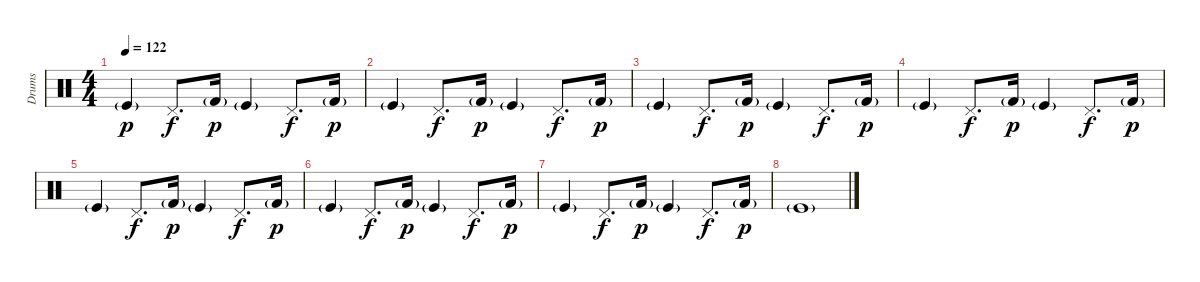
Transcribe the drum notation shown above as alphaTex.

\track ("Drums" "Drums") {instrument percussion}
\staff {score}
\articulation defaults
\ts (4 4)
\tempo 122
\clef neutral
\ks c "Kick (hit)"{g}.4{dy p} "Pedal Hi-Hat (hit)".8{d dy f} "Kick (hit) 2"{g}.16{dy p} "Kick (hit)"{g}.4 "Pedal Hi-Hat (hit)".8{d dy f} "Kick (hit) 2"{g}.16{dy p}
|
"Kick (hit)"{g}.4 "Pedal Hi-Hat (hit)".8{d dy f} "Kick (hit) 2"{g}.16{dy p} "Kick (hit)"{g}.4 "Pedal Hi-Hat (hit)".8{d dy f} "Kick (hit) 2"{g}.16{dy p} |
"Kick (hit)"{g}.4 "Pedal Hi-Hat (hit)".8{d dy f} "Kick (hit) 2"{g}.16{dy p} "Kick (hit)"{g}.4 "Pedal Hi-Hat (hit)".8{d dy f} "Kick (hit) 2"{g}.16{dy p} |
"Kick (hit)"{g}.4 "Pedal Hi-Hat (hit)".8{d dy f} "Kick (hit) 2"{g}.16{dy p} "Kick (hit)"{g}.4 "Pedal Hi-Hat (hit)".8{d dy f} "Kick (hit) 2"{g}.16{dy p} |
"Kick (hit)"{g}.4 "Pedal Hi-Hat (hit)".8{d dy f} "Kick (hit) 2"{g}.16{dy p} "Kick (hit)"{g}.4 "Pedal Hi-Hat (hit)".8{d dy f} "Kick (hit) 2"{g}.16{dy p} |
"Kick (hit)"{g}.4 "Pedal Hi-Hat (hit)".8{d dy f} "Kick (hit) 2"{g}.16{dy p} "Kick (hit)"{g}.4 "Pedal Hi-Hat (hit)".8{d dy f} "Kick (hit) 2"{g}.16{dy p} |
"Kick (hit)"{g}.4 "Pedal Hi-Hat (hit)".8{d dy f} "Kick (hit) 2"{g}.16{dy p} "Kick (hit)"{g}.4 "Pedal Hi-Hat (hit)".8{d dy f} "Kick (hit) 2"{g}.16{dy p} |
"Kick (hit)"{g}.1
